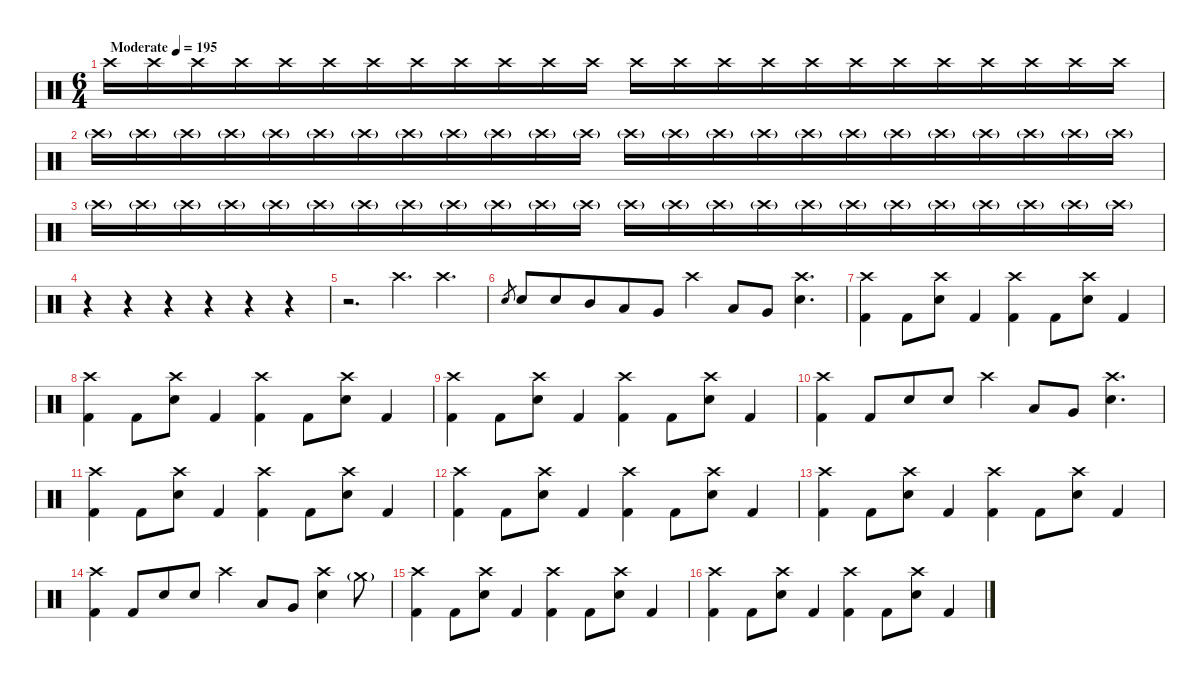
\defaultSystemsLayout 4
\hideDynamics
\bracketExtendMode nobrackets
\singleTrackTrackNamePolicy hidden
\multiTrackTrackNamePolicy hidden
\firstSystemTrackNameMode fullname
\firstSystemTrackNameOrientation horizontal
\otherSystemsTrackNameOrientation horizontal
\track ("Drums" "drm.") {instrument percussion}
\staff {score}
\articulation defaults
\ts (6 4)
\beaming (8 6 6)
\tempo (195 "Moderate")
\clef neutral
\ks c "Crash high (hit)".16{dy f beam Down} "Crash high (hit)".16{beam Down} "Crash high (hit)".16{beam Down} "Crash high (hit)".16{beam Down} "Crash high (hit)".16{beam Down} "Crash high (hit)".16{beam Down} "Crash high (hit)".16{beam Down} "Crash high (hit)".16{beam Down} "Crash high (hit)".16{beam Down} "Crash high (hit)".16{beam Down} "Crash high (hit)".16{beam Down} "Crash high (hit)".16{beam Down} "Crash high (hit)".16{beam Down} "Crash high (hit)".16{beam Down} "Crash high (hit)".16{beam Down} "Crash high (hit)".16{beam Down} "Crash high (hit)".16{beam Down} "Crash high (hit)".16{beam Down} "Crash high (hit)".16{beam Down} "Crash high (hit)".16{beam Down} "Crash high (hit)".16{beam Down} "Crash high (hit)".16{beam Down} "Crash high (hit)".16{beam Down} "Crash high (hit)".16{beam Down}
|
"Crash high (hit)"{g}.16{dy mf beam Down} "Crash high (hit)"{g}.16{beam Down} "Crash high (hit)"{g}.16{beam Down} "Crash high (hit)"{g}.16{beam Down} "Crash high (hit)"{g}.16{beam Down} "Crash high (hit)"{g}.16{beam Down} "Crash high (hit)"{g}.16{beam Down} "Crash high (hit)"{g}.16{beam Down} "Crash high (hit)"{g}.16{beam Down} "Crash high (hit)"{g}.16{beam Down} "Crash high (hit)"{g}.16{beam Down} "Crash high (hit)"{g}.16{beam Down} "Crash high (hit)"{g}.16{beam Down} "Crash high (hit)"{g}.16{beam Down} "Crash high (hit)"{g}.16{beam Down} "Crash high (hit)"{g}.16{beam Down} "Crash high (hit)"{g}.16{beam Down} "Crash high (hit)"{g}.16{beam Down} "Crash high (hit)"{g}.16{beam Down} "Crash high (hit)"{g}.16{beam Down} "Crash high (hit)"{g}.16{beam Down} "Crash high (hit)"{g}.16{beam Down} "Crash high (hit)"{g}.16{beam Down} "Crash high (hit)"{g}.16{beam Down} |
"Crash high (hit)"{g}.16{beam Down} "Crash high (hit)"{g}.16{beam Down} "Crash high (hit)"{g}.16{beam Down} "Crash high (hit)"{g}.16{beam Down} "Crash high (hit)"{g}.16{beam Down} "Crash high (hit)"{g}.16{beam Down} "Crash high (hit)"{g}.16{beam Down} "Crash high (hit)"{g}.16{beam Down} "Crash high (hit)"{g}.16{beam Down} "Crash high (hit)"{g}.16{beam Down} "Crash high (hit)"{g}.16{beam Down} "Crash high (hit)"{g}.16{beam Down} "Crash high (hit)"{g}.16{beam Down} "Crash high (hit)"{g}.16{beam Down} "Crash high (hit)"{g}.16{beam Down} "Crash high (hit)"{g}.16{beam Down} "Crash high (hit)"{g}.16{beam Down} "Crash high (hit)"{g}.16{beam Down} "Crash high (hit)"{g}.16{beam Down} "Crash high (hit)"{g}.16{beam Down} "Crash high (hit)"{g}.16{beam Down} "Crash high (hit)"{g}.16{beam Down} "Crash high (hit)"{g}.16{beam Down} "Crash high (hit)"{g}.16{beam Down} |
r.4{beam Down} r.4{beam Down} r.4{beam Down} r.4{beam Down} r.4{beam Down} r.4{beam Down} |
r.2{d beam Down} "Crash high (hit)".4{d dy f beam Down} "Crash high (hit)".4{d beam Down} |
"Electric Snare (hit)".8{gr dy mf beam Up} "Snare (hit) 2".8{dy f beam Up} "Snare (hit) 2".8{beam Up} "Mid Tom (hit)".8{beam Up} "Low Tom (hit)".8{beam Up} "Very Low Tom (hit)".8{beam Up} "Crash high (hit)".4{beam Down} "Low Tom (hit)".8{beam Up} "Very Low Tom (hit)".8{beam Up} ("Crash high (hit)" "Snare (hit) 2").4{d beam Down} |
("Crash high (hit)" "Kick (hit) 2").4{beam Down} "Kick (hit) 2".8{beam Down} ("Crash high (hit)" "Snare (hit) 2").8{beam Down} "Kick (hit) 2".4{beam Up} ("Crash high (hit)" "Kick (hit) 2").4{beam Down} "Kick (hit) 2".8{beam Down} ("Crash high (hit)" "Snare (hit) 2").8{beam Down} "Kick (hit) 2".4{beam Up} |
("Crash high (hit)" "Kick (hit) 2").4{beam Down} "Kick (hit) 2".8{beam Down} ("Crash high (hit)" "Snare (hit) 2").8{beam Down} "Kick (hit) 2".4{beam Up} ("Crash high (hit)" "Kick (hit) 2").4{beam Down} "Kick (hit) 2".8{beam Down} ("Crash high (hit)" "Snare (hit) 2").8{beam Down} "Kick (hit) 2".4{beam Up} |
("Crash high (hit)" "Kick (hit) 2").4{beam Down} "Kick (hit) 2".8{beam Down} ("Crash high (hit)" "Snare (hit) 2").8{beam Down} "Kick (hit) 2".4{beam Up} ("Crash high (hit)" "Kick (hit) 2").4{beam Down} "Kick (hit) 2".8{beam Down} ("Crash high (hit)" "Snare (hit) 2").8{beam Down} "Kick (hit) 2".4{beam Up} |
("Crash high (hit)" "Kick (hit) 2").4{beam Down} "Kick (hit) 2".8{beam Up} "Snare (hit) 2".8{beam Up} "Snare (hit) 2".8{beam Up} "Crash high (hit)".4{beam Down} "Low Tom (hit)".8{beam Up} "Very Low Tom (hit)".8{beam Up} ("Crash high (hit)" "Snare (hit) 2").4{d beam Down} |
("Crash high (hit)" "Kick (hit) 2").4{beam Down} "Kick (hit) 2".8{beam Down} ("Crash high (hit)" "Snare (hit) 2").8{beam Down} "Kick (hit) 2".4{beam Up} ("Crash high (hit)" "Kick (hit) 2").4{beam Down} "Kick (hit) 2".8{beam Down} ("Crash high (hit)" "Snare (hit) 2").8{beam Down} "Kick (hit) 2".4{beam Up} |
("Crash high (hit)" "Kick (hit) 2").4{beam Down} "Kick (hit) 2".8{beam Down} ("Crash high (hit)" "Snare (hit) 2").8{beam Down} "Kick (hit) 2".4{beam Up} ("Crash high (hit)" "Kick (hit) 2").4{beam Down} "Kick (hit) 2".8{beam Down} ("Crash high (hit)" "Snare (hit) 2").8{beam Down} "Kick (hit) 2".4{beam Up} |
("Crash high (hit)" "Kick (hit) 2").4{beam Down} "Kick (hit) 2".8{beam Down} ("Crash high (hit)" "Snare (hit) 2").8{beam Down} "Kick (hit) 2".4{beam Up} ("Crash high (hit)" "Kick (hit) 2").4{beam Down} "Kick (hit) 2".8{beam Down} ("Crash high (hit)" "Snare (hit) 2").8{beam Down} "Kick (hit) 2".4{beam Up} |
("Crash high (hit)" "Kick (hit) 2").4{beam Down} "Kick (hit) 2".8{beam Up} "Snare (hit) 2".8{beam Up} "Snare (hit) 2".8{beam Up} "Crash high (hit)".4{beam Down} "Low Tom (hit)".8{beam Up} "Very Low Tom (hit)".8{beam Up} ("Crash high (hit)" "Snare (hit) 2").4{beam Down} "Crash medium (hit)"{g}.8{dy mf beam Down} |
("Crash high (hit)" "Kick (hit) 2").4{dy f beam Down} "Kick (hit) 2".8{beam Down} ("Crash high (hit)" "Snare (hit) 2").8{beam Down} "Kick (hit) 2".4{beam Up} ("Crash high (hit)" "Kick (hit) 2").4{beam Down} "Kick (hit) 2".8{beam Down} ("Crash high (hit)" "Snare (hit) 2").8{beam Down} "Kick (hit) 2".4{beam Up} |
("Crash high (hit)" "Kick (hit) 2").4{beam Down} "Kick (hit) 2".8{beam Down} ("Crash high (hit)" "Snare (hit) 2").8{beam Down} "Kick (hit) 2".4{beam Up} ("Crash high (hit)" "Kick (hit) 2").4{beam Down} "Kick (hit) 2".8{beam Down} ("Crash high (hit)" "Snare (hit) 2").8{beam Down} "Kick (hit) 2".4{beam Up}
